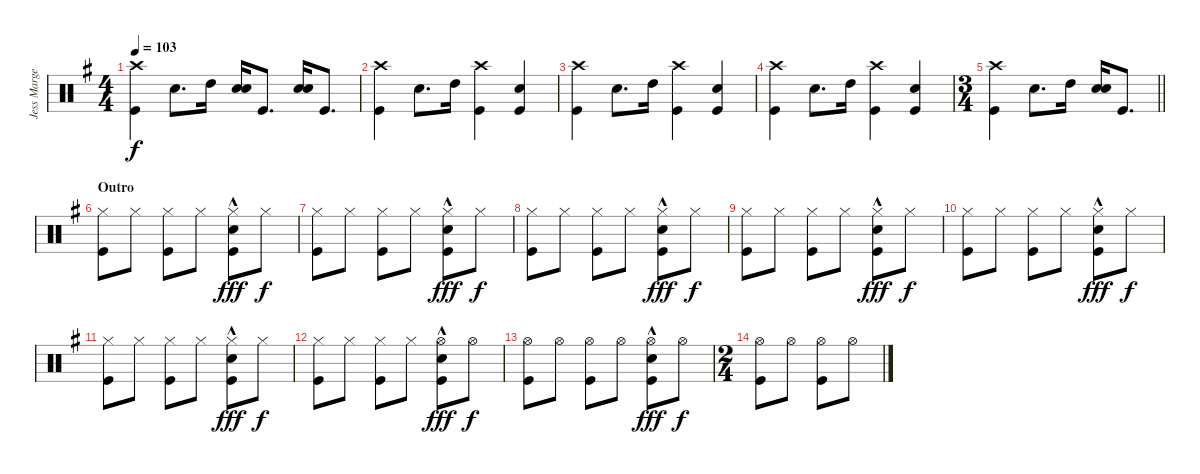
\track ("Jess Margera" "Jess Marge") {instrument percussion}
\staff {score}
\articulation defaults
\ts (4 4)
\tempo 103
\clef neutral
\ks g
("Crash high (hit)" "Kick (hit)").4{dy f} "Snare (hit) 2".8{d} "High Tom (hit)".16 ("Snare (hit) 2" "Snare (hit) 2").16 "Kick (hit)".8{d} ("Snare (hit) 2" "Snare (hit) 2").16 "Kick (hit)".8{d} |
("Crash high (hit)" "Kick (hit)").4 "Snare (hit) 2".8{d} "High Tom (hit)".16 ("Crash high (hit)" "Kick (hit)").4 ("Snare (hit) 2" "Kick (hit)").4 |
("Crash high (hit)" "Kick (hit)").4 "Snare (hit) 2".8{d} "High Tom (hit)".16 ("Crash high (hit)" "Kick (hit)").4 ("Snare (hit) 2" "Kick (hit)").4 |
("Crash high (hit)" "Kick (hit)").4 "Snare (hit) 2".8{d} "High Tom (hit)".16 ("Crash high (hit)" "Kick (hit)").4 ("Snare (hit) 2" "Kick (hit)").4 |
\ts (3 4)
\barLineRight lightlight
("Crash high (hit)" "Kick (hit)").4 "Snare (hit) 2".8{d} "High Tom (hit)".16 ("Snare (hit) 2" "Snare (hit) 2").16 "Kick (hit)".8{d} |
\section ("" "Outro")
("Hi-Hat (closed)" "Kick (hit)").8 "Hi-Hat (closed)".8 ("Hi-Hat (closed)" "Kick (hit)").8 "Hi-Hat (closed)".8 ("Hi-Hat (closed)"{hac} "Snare (hit) 2"{hac} "Kick (hit)"{hac}).8{dy fff} "Hi-Hat (closed)".8{dy f} |
("Hi-Hat (closed)" "Kick (hit)").8 "Hi-Hat (closed)".8 ("Hi-Hat (closed)" "Kick (hit)").8 "Hi-Hat (closed)".8 ("Hi-Hat (closed)"{hac} "Snare (hit) 2"{hac} "Kick (hit)"{hac}).8{dy fff} "Hi-Hat (closed)".8{dy f} |
("Hi-Hat (closed)" "Kick (hit)").8 "Hi-Hat (closed)".8 ("Hi-Hat (closed)" "Kick (hit)").8 "Hi-Hat (closed)".8 ("Hi-Hat (closed)"{hac} "Snare (hit) 2"{hac} "Kick (hit)"{hac}).8{dy fff} "Hi-Hat (closed)".8{dy f} |
("Hi-Hat (closed)" "Kick (hit)").8 "Hi-Hat (closed)".8 ("Hi-Hat (closed)" "Kick (hit)").8 "Hi-Hat (closed)".8 ("Hi-Hat (closed)"{hac} "Snare (hit) 2"{hac} "Kick (hit)"{hac}).8{dy fff} "Hi-Hat (closed)".8{dy f} |
("Hi-Hat (closed)" "Kick (hit)").8 "Hi-Hat (closed)".8 ("Hi-Hat (closed)" "Kick (hit)").8 "Hi-Hat (closed)".8 ("Hi-Hat (closed)"{hac} "Snare (hit) 2"{hac} "Kick (hit)"{hac}).8{dy fff} "Hi-Hat (closed)".8{dy f} |
("Hi-Hat (closed)" "Kick (hit)").8 "Hi-Hat (closed)".8 ("Hi-Hat (closed)" "Kick (hit)").8 "Hi-Hat (closed)".8 ("Hi-Hat (closed)"{hac} "Snare (hit) 2"{hac} "Kick (hit)"{hac}).8{dy fff} "Hi-Hat (closed)".8{dy f} |
("Hi-Hat (closed)" "Kick (hit)").8 "Hi-Hat (closed)".8 ("Hi-Hat (closed)" "Kick (hit)").8 "Hi-Hat (closed)".8 ("Hi-Hat (open)"{hac} "Snare (hit) 2"{hac} "Kick (hit)"{hac}).8{dy fff} "Hi-Hat (open)".8{dy f} |
("Hi-Hat (open)" "Kick (hit)").8 "Hi-Hat (open)".8 ("Hi-Hat (open)" "Kick (hit)").8 "Hi-Hat (open)".8 ("Hi-Hat (open)"{hac} "Snare (hit) 2"{hac} "Kick (hit)"{hac}).8{dy fff} "Hi-Hat (open)".8{dy f} |
\ts (2 4)
("Hi-Hat (open)" "Kick (hit)").8 "Hi-Hat (open)".8 ("Hi-Hat (open)" "Kick (hit)").8 "Hi-Hat (open)".8
